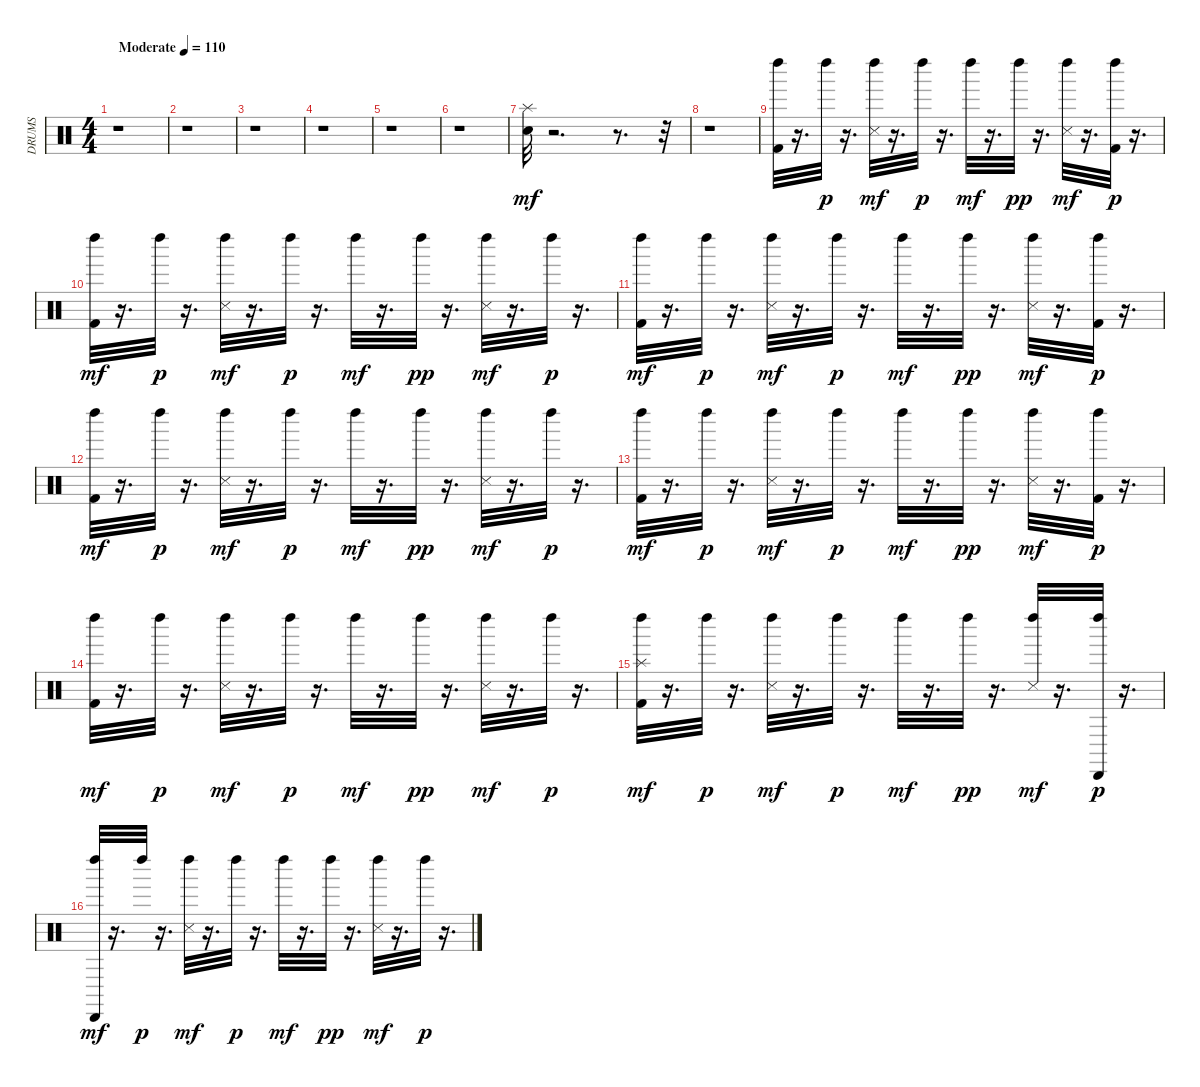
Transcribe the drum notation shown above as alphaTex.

\track ("DRUMS" "DRUMS") {instrument percussion}
\staff {score}
\articulation defaults
\ts (4 4)
\tempo (110 "Moderate")
\clef neutral
\ks c
r.1{dy mf} |
r.1 |
r.1 |
r.1 |
r.1 |
r.1 |
("Splash (hit)" "Snare (hit)").32 r.2{d} r.8{d} r.32 |
r.1 |
("Kick (hit) 2" "Left Maraca (hit)").32 r.16{d} "Left Maraca (hit)".32{dy p} r.16{d} ("Snare (side stick) 3" "Left Maraca (hit)").32{dy mf} r.16{d} "Left Maraca (hit)".32{dy p} r.16{d} "Left Maraca (hit)".32{dy mf} r.16{d} "Left Maraca (hit)".32{dy pp} r.16{d} ("Snare (side stick) 3" "Left Maraca (hit)").32{dy mf} r.16{d} ("Kick (hit) 2" "Left Maraca (hit)").32{dy p} r.16{d} |
("Kick (hit) 2" "Left Maraca (hit)").32{dy mf} r.16{d} "Left Maraca (hit)".32{dy p} r.16{d} ("Snare (side stick) 3" "Left Maraca (hit)").32{dy mf} r.16{d} "Left Maraca (hit)".32{dy p} r.16{d} "Left Maraca (hit)".32{dy mf} r.16{d} "Left Maraca (hit)".32{dy pp} r.16{d} ("Snare (side stick) 3" "Left Maraca (hit)").32{dy mf} r.16{d} "Left Maraca (hit)".32{dy p} r.16{d} |
("Kick (hit) 2" "Left Maraca (hit)").32{dy mf} r.16{d} "Left Maraca (hit)".32{dy p} r.16{d} ("Snare (side stick) 3" "Left Maraca (hit)").32{dy mf} r.16{d} "Left Maraca (hit)".32{dy p} r.16{d} "Left Maraca (hit)".32{dy mf} r.16{d} "Left Maraca (hit)".32{dy pp} r.16{d} ("Snare (side stick) 3" "Left Maraca (hit)").32{dy mf} r.16{d} ("Kick (hit) 2" "Left Maraca (hit)").32{dy p} r.16{d} |
("Kick (hit) 2" "Left Maraca (hit)").32{dy mf} r.16{d} "Left Maraca (hit)".32{dy p} r.16{d} ("Snare (side stick) 3" "Left Maraca (hit)").32{dy mf} r.16{d} "Left Maraca (hit)".32{dy p} r.16{d} "Left Maraca (hit)".32{dy mf} r.16{d} "Left Maraca (hit)".32{dy pp} r.16{d} ("Snare (side stick) 3" "Left Maraca (hit)").32{dy mf} r.16{d} "Left Maraca (hit)".32{dy p} r.16{d} |
("Kick (hit) 2" "Left Maraca (hit)").32{dy mf} r.16{d} "Left Maraca (hit)".32{dy p} r.16{d} ("Snare (side stick) 3" "Left Maraca (hit)").32{dy mf} r.16{d} "Left Maraca (hit)".32{dy p} r.16{d} "Left Maraca (hit)".32{dy mf} r.16{d} "Left Maraca (hit)".32{dy pp} r.16{d} ("Snare (side stick) 3" "Left Maraca (hit)").32{dy mf} r.16{d} ("Kick (hit) 2" "Left Maraca (hit)").32{dy p} r.16{d} |
("Kick (hit) 2" "Left Maraca (hit)").32{dy mf} r.16{d} "Left Maraca (hit)".32{dy p} r.16{d} ("Snare (side stick) 3" "Left Maraca (hit)").32{dy mf} r.16{d} "Left Maraca (hit)".32{dy p} r.16{d} "Left Maraca (hit)".32{dy mf} r.16{d} "Left Maraca (hit)".32{dy pp} r.16{d} ("Snare (side stick) 3" "Left Maraca (hit)").32{dy mf} r.16{d} "Left Maraca (hit)".32{dy p} r.16{d} |
("Kick (hit) 2" "Splash (hit)" "Left Maraca (hit)").32{dy mf} r.16{d} "Left Maraca (hit)".32{dy p} r.16{d} ("Snare (side stick) 3" "Left Maraca (hit)").32{dy mf} r.16{d} "Left Maraca (hit)".32{dy p} r.16{d} "Left Maraca (hit)".32{dy mf} r.16{d} "Left Maraca (hit)".32{dy pp} r.16{d} ("Snare (side stick) 3" "Left Maraca (hit)").32{dy mf} r.16{d} ("Cabasa (hit)" "Left Maraca (hit)").32{dy p} r.16{d} |
("Cabasa (hit)" "Left Maraca (hit)").32{dy mf} r.16{d} "Left Maraca (hit)".32{dy p} r.16{d} ("Snare (side stick) 3" "Left Maraca (hit)").32{dy mf} r.16{d} "Left Maraca (hit)".32{dy p} r.16{d} "Left Maraca (hit)".32{dy mf} r.16{d} "Left Maraca (hit)".32{dy pp} r.16{d} ("Snare (side stick) 3" "Left Maraca (hit)").32{dy mf} r.16{d} "Left Maraca (hit)".32{dy p} r.16{d}
